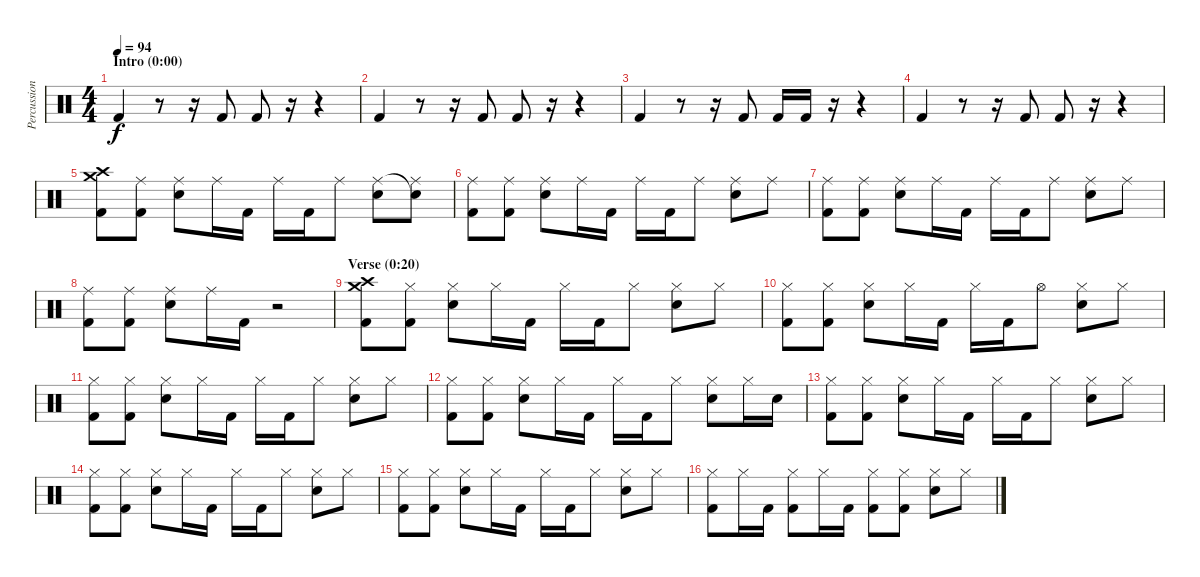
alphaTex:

\track ("Percussion" "Percussion") {instrument percussion}
\staff {score}
\articulation defaults
\ts (4 4)
\section ("" "Intro (0:00)")
\tempo 94
\clef neutral
\ks c "Kick (hit) 2".4{dy f}
r.8 r.16 "Kick (hit) 2".8 "Kick (hit) 2".8 r.16 r.4 |
"Kick (hit) 2".4 r.8 r.16 "Kick (hit) 2".8 "Kick (hit) 2".8 r.16 r.4 |
"Kick (hit) 2".4 r.8 r.16 "Kick (hit) 2".8 "Kick (hit) 2".16 "Kick (hit) 2".16 r.16 r.4 |
"Kick (hit) 2".4 r.8 r.16 "Kick (hit) 2".8 "Kick (hit) 2".8 r.16 r.4 |
("Crash high (hit)" "Crash medium (hit)" "Kick (hit) 2").8 ("Ride (middle)" "Kick (hit) 2").8 ("Ride (middle)" "Snare (hit) 2").8 "Ride (middle)".16 "Kick (hit) 2".16 "Ride (middle)".16 "Kick (hit) 2".16 "Ride (middle)".8 ("Ride (middle)" "Snare (hit) 2").8 ("Snare (hit)"{t} "Ride (middle)").8 |
("Ride (middle)" "Kick (hit) 2").8 ("Ride (middle)" "Kick (hit) 2").8 ("Ride (middle)" "Snare (hit) 2").8 "Ride (middle)".16 "Kick (hit) 2".16 "Ride (middle)".16 "Kick (hit) 2".16 "Ride (middle)".8 ("Ride (middle)" "Snare (hit) 2").8 "Ride (middle)".8 |
("Ride (middle)" "Kick (hit) 2").8 ("Ride (middle)" "Kick (hit) 2").8 ("Ride (middle)" "Snare (hit) 2").8 "Ride (middle)".16 "Kick (hit) 2".16 "Ride (middle)".16 "Kick (hit) 2".16 "Ride (middle)".8 ("Ride (middle)" "Snare (hit) 2").8 "Ride (middle)".8 |
("Ride (middle)" "Kick (hit) 2").8 ("Ride (middle)" "Kick (hit) 2").8 ("Ride (middle)" "Snare (hit) 2").8 "Ride (middle)".16 "Kick (hit) 2".16 r.2 |
\section ("" "Verse (0:20)")
("Crash high (hit)" "Crash medium (hit)" "Kick (hit) 2").8 ("Hi-Hat (closed)" "Kick (hit) 2").8 ("Hi-Hat (closed)" "Snare (hit) 2").8 "Hi-Hat (closed)".16 "Kick (hit) 2".16 "Hi-Hat (closed)".16 "Kick (hit) 2".16 "Hi-Hat (closed)".8 ("Hi-Hat (closed)" "Snare (hit) 2").8 "Hi-Hat (closed)".8 |
("Hi-Hat (closed)" "Kick (hit) 2").8 ("Hi-Hat (closed)" "Kick (hit) 2").8 ("Hi-Hat (closed)" "Snare (hit) 2").8 "Hi-Hat (closed)".16 "Kick (hit) 2".16 "Hi-Hat (closed)".16 "Kick (hit) 2".16 "Hi-Hat (open)".8 ("Hi-Hat (closed)" "Snare (hit) 2").8 "Hi-Hat (closed)".8 |
("Hi-Hat (closed)" "Kick (hit) 2").8 ("Hi-Hat (closed)" "Kick (hit) 2").8 ("Hi-Hat (closed)" "Snare (hit) 2").8 "Hi-Hat (closed)".16 "Kick (hit) 2".16 "Hi-Hat (closed)".16 "Kick (hit) 2".16 "Hi-Hat (closed)".8 ("Hi-Hat (closed)" "Snare (hit) 2").8 "Hi-Hat (closed)".8 |
("Hi-Hat (closed)" "Kick (hit) 2").8 ("Hi-Hat (closed)" "Kick (hit) 2").8 ("Hi-Hat (closed)" "Snare (hit) 2").8 "Hi-Hat (closed)".16 "Kick (hit) 2".16 "Hi-Hat (closed)".16 "Kick (hit) 2".16 "Hi-Hat (closed)".8 ("Hi-Hat (closed)" "Snare (hit) 2").8 "Hi-Hat (closed)".16 "Snare (hit) 2".16 |
("Hi-Hat (closed)" "Kick (hit) 2").8 ("Hi-Hat (closed)" "Kick (hit) 2").8 ("Hi-Hat (closed)" "Snare (hit) 2").8 "Hi-Hat (closed)".16 "Kick (hit) 2".16 "Hi-Hat (closed)".16 "Kick (hit) 2".16 "Hi-Hat (closed)".8 ("Hi-Hat (closed)" "Snare (hit) 2").8 "Hi-Hat (closed)".8 |
("Hi-Hat (closed)" "Kick (hit) 2").8 ("Hi-Hat (closed)" "Kick (hit) 2").8 ("Hi-Hat (closed)" "Snare (hit) 2").8 "Hi-Hat (closed)".16 "Kick (hit) 2".16 "Hi-Hat (closed)".16 "Kick (hit) 2".16 "Hi-Hat (closed)".8 ("Hi-Hat (closed)" "Snare (hit) 2").8 "Hi-Hat (closed)".8 |
("Hi-Hat (closed)" "Kick (hit) 2").8 ("Hi-Hat (closed)" "Kick (hit) 2").8 ("Hi-Hat (closed)" "Snare (hit) 2").8 "Hi-Hat (closed)".16 "Kick (hit) 2".16 "Hi-Hat (closed)".16 "Kick (hit) 2".16 "Hi-Hat (closed)".8 ("Hi-Hat (closed)" "Snare (hit) 2").8 "Hi-Hat (closed)".8 |
("Hi-Hat (closed)" "Kick (hit) 2").8 "Hi-Hat (closed)".16 "Kick (hit) 2".16 ("Hi-Hat (closed)" "Kick (hit) 2").8 "Hi-Hat (closed)".16 "Kick (hit) 2".16 ("Hi-Hat (closed)" "Kick (hit) 2").8 ("Hi-Hat (closed)" "Kick (hit) 2").8 ("Hi-Hat (closed)" "Snare (hit) 2").8 "Hi-Hat (closed)".8
